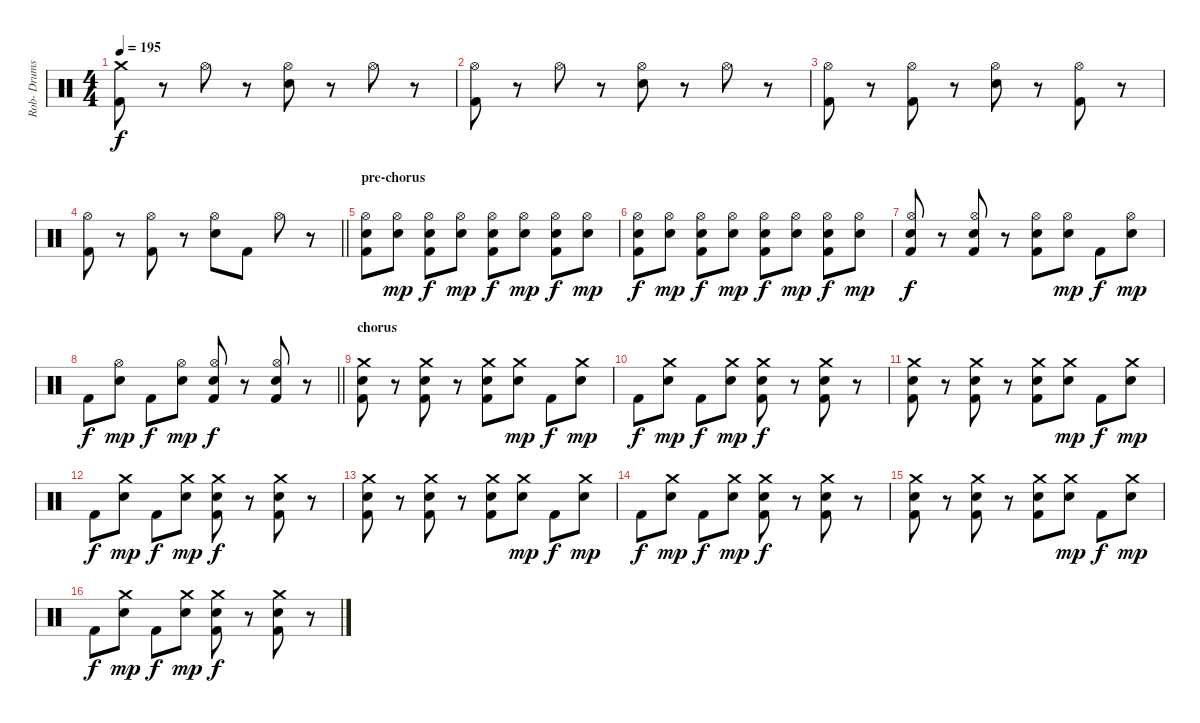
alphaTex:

\track ("Rob- Drums" "Rob- Drums") {instrument percussion}
\staff {score}
\articulation defaults
\ts (4 4)
\tempo 195
\clef neutral
\ks c
("Crash medium (hit)" "Kick (hit) 2").8{dy f} r.8 "Hi-Hat (open)".8 r.8 ("Hi-Hat (open)" "Electric Snare (hit)").8 r.8 "Hi-Hat (open)".8 r.8 |
("Hi-Hat (open)" "Kick (hit) 2").8 r.8 "Hi-Hat (open)".8 r.8 ("Hi-Hat (open)" "Electric Snare (hit)").8 r.8 "Hi-Hat (open)".8 r.8 |
("Hi-Hat (open)" "Kick (hit) 2").8 r.8 ("Hi-Hat (open)" "Kick (hit) 2").8 r.8 ("Hi-Hat (open)" "Electric Snare (hit)").8 r.8 ("Hi-Hat (open)" "Kick (hit) 2").8 r.8 |
\barLineRight lightlight
("Hi-Hat (open)" "Kick (hit) 2").8 r.8 ("Hi-Hat (open)" "Kick (hit) 2").8 r.8 ("Hi-Hat (open)" "Electric Snare (hit)").8 "Kick (hit) 2".8 "Hi-Hat (open)".8 r.8 |
\section ("" "pre-chorus")
("Hi-Hat (open)" "Electric Snare (hit)" "Kick (hit) 2").8 ("Hi-Hat (open)" "Electric Snare (hit)").8{dy mp} ("Hi-Hat (open)" "Electric Snare (hit)" "Kick (hit) 2").8{dy f} ("Hi-Hat (open)" "Electric Snare (hit)").8{dy mp} ("Hi-Hat (open)" "Electric Snare (hit)" "Kick (hit) 2").8{dy f} ("Hi-Hat (open)" "Electric Snare (hit)").8{dy mp} ("Hi-Hat (open)" "Electric Snare (hit)" "Kick (hit) 2").8{dy f} ("Hi-Hat (open)" "Electric Snare (hit)").8{dy mp} |
("Hi-Hat (open)" "Electric Snare (hit)" "Kick (hit) 2").8{dy f} ("Hi-Hat (open)" "Electric Snare (hit)").8{dy mp} ("Hi-Hat (open)" "Electric Snare (hit)" "Kick (hit) 2").8{dy f} ("Hi-Hat (open)" "Electric Snare (hit)").8{dy mp} ("Hi-Hat (open)" "Electric Snare (hit)" "Kick (hit) 2").8{dy f} ("Hi-Hat (open)" "Electric Snare (hit)").8{dy mp} ("Hi-Hat (open)" "Electric Snare (hit)" "Kick (hit) 2").8{dy f} ("Hi-Hat (open)" "Electric Snare (hit)").8{dy mp} |
("Hi-Hat (open)" "Electric Snare (hit)" "Kick (hit) 2").8{dy f} r.8 ("Hi-Hat (open)" "Electric Snare (hit)" "Kick (hit) 2").8 r.8 ("Hi-Hat (open)" "Electric Snare (hit)" "Kick (hit) 2").8 ("Hi-Hat (open)" "Electric Snare (hit)").8{dy mp} "Kick (hit) 2".8{dy f} ("Hi-Hat (open)" "Electric Snare (hit)").8{dy mp} |
\barLineRight lightlight "Kick (hit) 2".8{dy f}
("Hi-Hat (open)" "Electric Snare (hit)").8{dy mp} "Kick (hit) 2".8{dy f} ("Hi-Hat (open)" "Electric Snare (hit)").8{dy mp} ("Hi-Hat (open)" "Electric Snare (hit)" "Kick (hit) 2").8{dy f} r.8 ("Hi-Hat (open)" "Electric Snare (hit)" "Kick (hit) 2").8 r.8 |
\section ("" "chorus")
("Crash medium (hit)" "Electric Snare (hit)" "Kick (hit) 2").8 r.8 ("Crash medium (hit)" "Electric Snare (hit)" "Kick (hit) 2").8 r.8 ("Crash medium (hit)" "Electric Snare (hit)" "Kick (hit) 2").8 ("Crash medium (hit)" "Electric Snare (hit)").8{dy mp} "Kick (hit) 2".8{dy f} ("Crash medium (hit)" "Electric Snare (hit)").8{dy mp} |
"Kick (hit) 2".8{dy f} ("Crash medium (hit)" "Electric Snare (hit)").8{dy mp} "Kick (hit) 2".8{dy f} ("Crash medium (hit)" "Electric Snare (hit)").8{dy mp} ("Crash medium (hit)" "Electric Snare (hit)" "Kick (hit) 2").8{dy f} r.8 ("Crash medium (hit)" "Electric Snare (hit)" "Kick (hit) 2").8 r.8 |
("Crash medium (hit)" "Electric Snare (hit)" "Kick (hit) 2").8 r.8 ("Crash medium (hit)" "Electric Snare (hit)" "Kick (hit) 2").8 r.8 ("Crash medium (hit)" "Electric Snare (hit)" "Kick (hit) 2").8 ("Crash medium (hit)" "Electric Snare (hit)").8{dy mp} "Kick (hit) 2".8{dy f} ("Crash medium (hit)" "Electric Snare (hit)").8{dy mp} |
"Kick (hit) 2".8{dy f} ("Crash medium (hit)" "Electric Snare (hit)").8{dy mp} "Kick (hit) 2".8{dy f} ("Crash medium (hit)" "Electric Snare (hit)").8{dy mp} ("Crash medium (hit)" "Electric Snare (hit)" "Kick (hit) 2").8{dy f} r.8 ("Crash medium (hit)" "Electric Snare (hit)" "Kick (hit) 2").8 r.8 |
("Crash medium (hit)" "Electric Snare (hit)" "Kick (hit) 2").8 r.8 ("Crash medium (hit)" "Electric Snare (hit)" "Kick (hit) 2").8 r.8 ("Crash medium (hit)" "Electric Snare (hit)" "Kick (hit) 2").8 ("Crash medium (hit)" "Electric Snare (hit)").8{dy mp} "Kick (hit) 2".8{dy f} ("Crash medium (hit)" "Electric Snare (hit)").8{dy mp} |
"Kick (hit) 2".8{dy f} ("Crash medium (hit)" "Electric Snare (hit)").8{dy mp} "Kick (hit) 2".8{dy f} ("Crash medium (hit)" "Electric Snare (hit)").8{dy mp} ("Crash medium (hit)" "Electric Snare (hit)" "Kick (hit) 2").8{dy f} r.8 ("Crash medium (hit)" "Electric Snare (hit)" "Kick (hit) 2").8 r.8 |
("Crash medium (hit)" "Electric Snare (hit)" "Kick (hit) 2").8 r.8 ("Crash medium (hit)" "Electric Snare (hit)" "Kick (hit) 2").8 r.8 ("Crash medium (hit)" "Electric Snare (hit)" "Kick (hit) 2").8 ("Crash medium (hit)" "Electric Snare (hit)").8{dy mp} "Kick (hit) 2".8{dy f} ("Crash medium (hit)" "Electric Snare (hit)").8{dy mp} |
"Kick (hit) 2".8{dy f} ("Crash medium (hit)" "Electric Snare (hit)").8{dy mp} "Kick (hit) 2".8{dy f} ("Crash medium (hit)" "Electric Snare (hit)").8{dy mp} ("Crash medium (hit)" "Electric Snare (hit)" "Kick (hit) 2").8{dy f} r.8 ("Crash medium (hit)" "Electric Snare (hit)" "Kick (hit) 2").8 r.8
